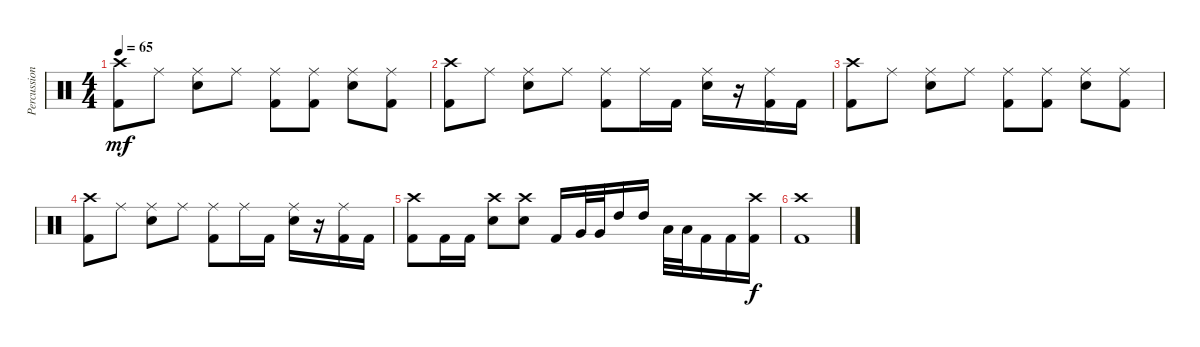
\track ("Percussion" "Percussion") {instrument percussion}
\staff {score}
\articulation defaults
\ts (4 4)
\tempo 65
\clef neutral
\ks c
("Crash high (hit)" "Kick (hit) 2").8{dy mf} "Ride (middle)".8 ("Snare (hit) 2" "Ride (middle)").8 "Ride (middle)".8 ("Kick (hit) 2" "Ride (middle)").8 ("Kick (hit) 2" "Ride (middle)").8 ("Snare (hit) 2" "Ride (middle)").8 ("Kick (hit) 2" "Ride (middle)").8 |
("Crash high (hit)" "Kick (hit) 2").8 "Ride (middle)".8 ("Snare (hit) 2" "Ride (middle)").8 "Ride (middle)".8 ("Kick (hit) 2" "Ride (middle)").8 "Ride (middle)".16 "Kick (hit) 2".16 ("Snare (hit) 2" "Ride (middle)").16 r.16 ("Kick (hit) 2" "Ride (middle)").16 "Kick (hit) 2".16 |
("Crash high (hit)" "Kick (hit) 2").8 "Ride (middle)".8 ("Snare (hit) 2" "Ride (middle)").8 "Ride (middle)".8 ("Kick (hit) 2" "Ride (middle)").8 ("Kick (hit) 2" "Ride (middle)").8 ("Snare (hit) 2" "Ride (middle)").8 ("Kick (hit) 2" "Ride (middle)").8 |
("Crash high (hit)" "Kick (hit) 2").8 "Ride (middle)".8 ("Snare (hit) 2" "Ride (middle)").8 "Ride (middle)".8 ("Kick (hit) 2" "Ride (middle)").8 "Ride (middle)".16 "Kick (hit) 2".16 ("Snare (hit) 2" "Ride (middle)").16 r.16 ("Kick (hit) 2" "Ride (middle)").16 "Kick (hit) 2".16 |
("Kick (hit) 2" "Crash high (hit)").8 "Kick (hit) 2".16 "Kick (hit) 2".16 ("Snare (hit) 2" "Crash high (hit)").8 ("Snare (hit) 2" "Crash high (hit)").8 "Kick (hit) 2".16 "Very Low Tom (hit)".32 "Very Low Tom (hit)".32 "High Tom (hit)".16 "High Tom (hit)".16 "Low Tom (hit)".32 "Low Tom (hit)".32 "Kick (hit) 2".16 "Kick (hit) 2".16 ("Kick (hit) 2" "Crash high (hit)").16{dy f} |
("Kick (hit) 2" "Crash high (hit)").1
